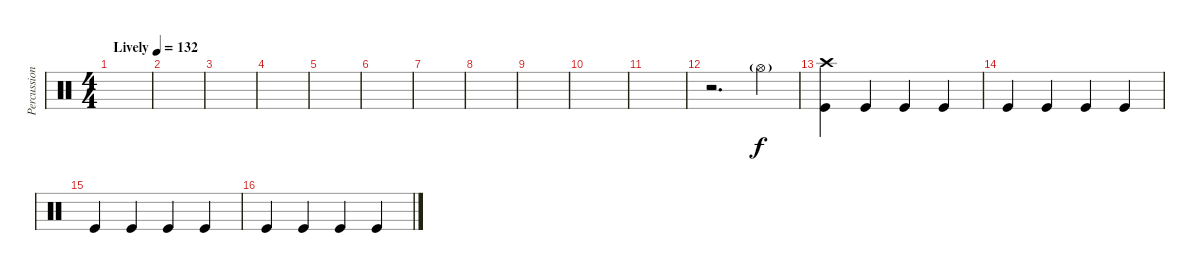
\track ("Percussion" "Percussion") {instrument percussion}
\staff {score}
\articulation defaults
\ts (4 4)
\tempo (132 "Lively")
\clef neutral
\ks c
|
|
|
|
|
|
|
|
|
|
|
r.2{d} "Hi-Hat (open)"{g}.4 |
("Crash high (hit)" "Kick (hit)").4{dy f} "Kick (hit)".4 "Kick (hit)".4 "Kick (hit)".4 |
"Kick (hit)".4 "Kick (hit)".4 "Kick (hit)".4 "Kick (hit)".4 |
"Kick (hit)".4 "Kick (hit)".4 "Kick (hit)".4 "Kick (hit)".4 |
"Kick (hit)".4 "Kick (hit)".4 "Kick (hit)".4 "Kick (hit)".4
